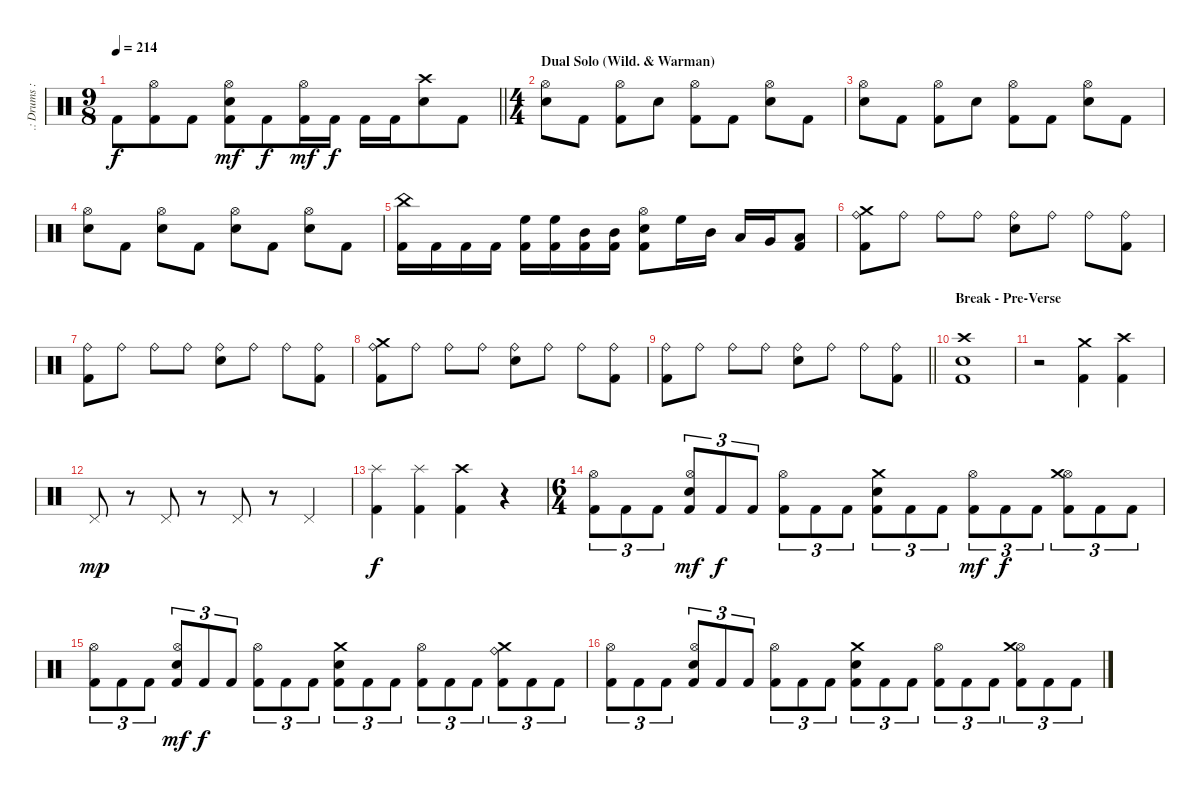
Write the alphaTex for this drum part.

\track (".: Drums :." ".: Drums :") {instrument percussion}
\staff {score}
\articulation defaults
\ts (9 8)
\tempo 214
\clef neutral
\barLineRight lightlight
\ks c "Kick (hit) 2".8{dy f}
("Kick (hit) 2" "Hi-Hat (open)").8 "Kick (hit) 2".8 ("Kick (hit) 2" "Electric Snare (hit)" "Hi-Hat (open)").8{dy mf} "Kick (hit) 2".8{dy f} ("Kick (hit) 2" "Hi-Hat (open)").16{dy mf} "Kick (hit) 2".16{dy f} "Kick (hit) 2".16 "Kick (hit) 2".16 ("Crash high (hit)" "Electric Snare (hit)").8 "Kick (hit) 2".8 |
\ts (4 4)
\section ("" "Dual Solo (Wild. & Warman)")
("Hi-Hat (open)" "Snare (hit) 2").8 "Kick (hit) 2".8 ("Hi-Hat (open)" "Kick (hit) 2").8 "Snare (hit) 2".8 ("Hi-Hat (open)" "Kick (hit) 2").8 "Kick (hit) 2".8 ("Hi-Hat (open)" "Snare (hit) 2").8 "Kick (hit) 2".8 |
("Hi-Hat (open)" "Snare (hit) 2").8 "Kick (hit) 2".8 ("Hi-Hat (open)" "Kick (hit) 2").8 "Snare (hit) 2".8 ("Hi-Hat (open)" "Kick (hit) 2").8 "Kick (hit) 2".8 ("Hi-Hat (open)" "Snare (hit) 2").8 "Kick (hit) 2".8 |
("Snare (hit) 2" "Hi-Hat (open)").8 "Kick (hit) 2".8 ("Snare (hit) 2" "Hi-Hat (open)").8 "Kick (hit) 2".8 ("Snare (hit) 2" "Hi-Hat (open)").8 "Kick (hit) 2".8 ("Snare (hit) 2" "Hi-Hat (open)").8 "Kick (hit) 2".8 |
("China (hit)" "Kick (hit) 2").16 "Kick (hit) 2".16 "Kick (hit) 2".16 "Kick (hit) 2".16 ("High Floor Tom (hit)" "Kick (hit) 2").16 ("High Floor Tom (hit)" "Kick (hit) 2").16 ("Mid Tom (hit)" "Kick (hit) 2").16 ("Mid Tom (hit)" "Kick (hit) 2").16 ("Snare (hit) 2" "Hi-Hat (open)" "Kick (hit) 2").8 "High Floor Tom (hit)".16 "Mid Tom (hit)".16 "Low Tom (hit)".16 "Very Low Tom (hit)".16 ("Low Floor Tom (hit)" "Kick (hit) 2").8 |
("Ride (bell)" "Kick (hit) 2" "Crash medium (hit)").8 "Ride (bell)".8 "Ride (bell)".8 "Ride (bell)".8 ("Snare (hit) 2" "Ride (bell)").8 "Ride (bell)".8 "Ride (bell)".8 ("Ride (bell)" "Kick (hit) 2").8 |
("Ride (bell)" "Kick (hit) 2").8 "Ride (bell)".8 "Ride (bell)".8 "Ride (bell)".8 ("Snare (hit) 2" "Ride (bell)").8 "Ride (bell)".8 "Ride (bell)".8 ("Ride (bell)" "Kick (hit) 2").8 |
("Ride (bell)" "Kick (hit) 2" "Crash medium (hit)").8 "Ride (bell)".8 "Ride (bell)".8 "Ride (bell)".8 ("Snare (hit) 2" "Ride (bell)").8 "Ride (bell)".8 "Ride (bell)".8 ("Ride (bell)" "Kick (hit) 2").8 |
\barLineRight lightlight
("Ride (bell)" "Kick (hit) 2").8 "Ride (bell)".8 "Ride (bell)".8 "Ride (bell)".8 ("Snare (hit) 2" "Ride (bell)").8 "Ride (bell)".8 "Ride (bell)".8 ("Ride (bell)" "Kick (hit) 2").8 |
\section ("" "Break - Pre-Verse")
("Snare (hit) 2" "Crash high (hit)" "Kick (hit) 2").1 |
r.2 ("Kick (hit) 2" "Crash medium (hit)").4 ("Kick (hit) 2" "Crash high (hit)").4 |
"Pedal Hi-Hat (hit)".8{dy mp} r.8 "Pedal Hi-Hat (hit)".8 r.8 "Pedal Hi-Hat (hit)".8 r.8 "Pedal Hi-Hat (hit)".4 |
("Kick (hit) 2" "Splash (hit)").4{dy f} ("Kick (hit) 2" "Splash (hit)").4 ("Kick (hit) 2" "Crash high (hit)").4 r.4 |
\ts (6 4)
("Kick (hit) 2" "Hi-Hat (open)").8{tu (3 2)} "Kick (hit) 2".8{tu (3 2)} "Kick (hit) 2".8{tu (3 2)} ("Kick (hit) 2" "Hi-Hat (open)" "Snare (hit) 2").8{tu (3 2) dy mf} "Kick (hit) 2".8{tu (3 2) dy f} "Kick (hit) 2".8{tu (3 2)} ("Kick (hit) 2" "Hi-Hat (open)").8{tu (3 2)} "Kick (hit) 2".8{tu (3 2)} "Kick (hit) 2".8{tu (3 2)} ("Kick (hit) 2" "Crash medium (hit)" "Snare (hit) 2").8{tu (3 2)} "Kick (hit) 2".8{tu (3 2)} "Kick (hit) 2".8{tu (3 2)} ("Kick (hit) 2" "Hi-Hat (open)").8{tu (3 2) dy mf} "Kick (hit) 2".8{tu (3 2) dy f} "Kick (hit) 2".8{tu (3 2)} ("Kick (hit) 2" "Hi-Hat (open)" "Crash medium (hit)").8{tu (3 2)} "Kick (hit) 2".8{tu (3 2)} "Kick (hit) 2".8{tu (3 2)} |
("Kick (hit) 2" "Hi-Hat (open)").8{tu (3 2)} "Kick (hit) 2".8{tu (3 2)} "Kick (hit) 2".8{tu (3 2)} ("Kick (hit) 2" "Hi-Hat (open)" "Snare (hit) 2").8{tu (3 2) dy mf} "Kick (hit) 2".8{tu (3 2) dy f} "Kick (hit) 2".8{tu (3 2)} ("Kick (hit) 2" "Hi-Hat (open)").8{tu (3 2)} "Kick (hit) 2".8{tu (3 2)} "Kick (hit) 2".8{tu (3 2)} ("Kick (hit) 2" "Crash medium (hit)" "Snare (hit) 2").8{tu (3 2)} "Kick (hit) 2".8{tu (3 2)} "Kick (hit) 2".8{tu (3 2)} ("Kick (hit) 2" "Hi-Hat (open)").8{tu (3 2)} "Kick (hit) 2".8{tu (3 2)} "Kick (hit) 2".8{tu (3 2)} ("Kick (hit) 2" "Ride (bell)" "Crash medium (hit)").8{tu (3 2)} "Kick (hit) 2".8{tu (3 2)} "Kick (hit) 2".8{tu (3 2)} |
("Kick (hit) 2" "Hi-Hat (open)").8{tu (3 2)} "Kick (hit) 2".8{tu (3 2)} "Kick (hit) 2".8{tu (3 2)} ("Kick (hit) 2" "Hi-Hat (open)" "Snare (hit) 2").8{tu (3 2)} "Kick (hit) 2".8{tu (3 2)} "Kick (hit) 2".8{tu (3 2)} ("Kick (hit) 2" "Hi-Hat (open)").8{tu (3 2)} "Kick (hit) 2".8{tu (3 2)} "Kick (hit) 2".8{tu (3 2)} ("Kick (hit) 2" "Crash medium (hit)" "Snare (hit) 2").8{tu (3 2)} "Kick (hit) 2".8{tu (3 2)} "Kick (hit) 2".8{tu (3 2)} ("Kick (hit) 2" "Hi-Hat (open)").8{tu (3 2)} "Kick (hit) 2".8{tu (3 2)} "Kick (hit) 2".8{tu (3 2)} ("Kick (hit) 2" "Hi-Hat (open)" "Crash medium (hit)").8{tu (3 2)} "Kick (hit) 2".8{tu (3 2)} "Kick (hit) 2".8{tu (3 2)}
